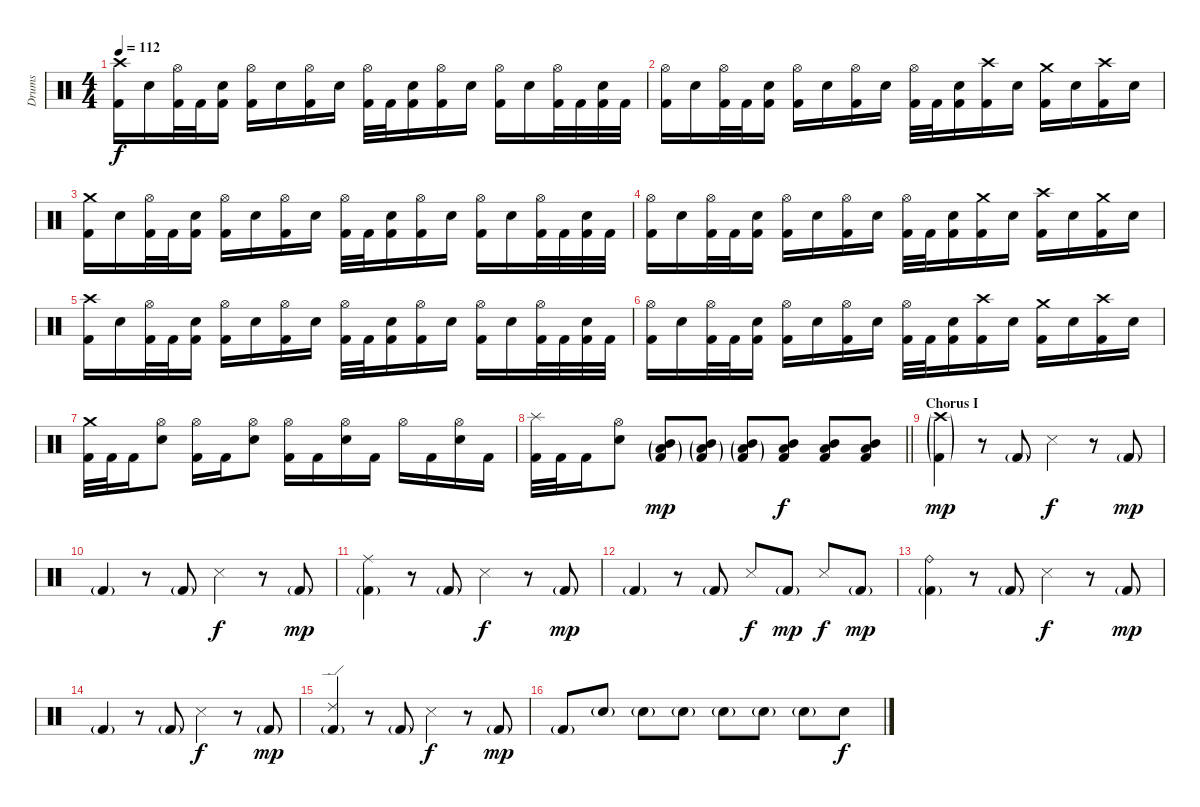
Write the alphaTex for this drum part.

\track ("Drums" "Drums") {instrument percussion}
\staff {score}
\articulation defaults
\ts (4 4)
\tempo 112
\clef neutral
\ks c
("Crash high (hit)" "Kick (hit) 2").16{dy f} "Electric Snare (hit)".16 ("Hi-Hat (open)" "Kick (hit) 2").32 "Kick (hit) 2".32 ("Electric Snare (hit)" "Kick (hit) 2").16 ("Hi-Hat (open)" "Kick (hit) 2").16 "Electric Snare (hit)".16 ("Hi-Hat (open)" "Kick (hit) 2").16 "Electric Snare (hit)".16 ("Hi-Hat (open)" "Kick (hit) 2").32 "Kick (hit) 2".32 ("Electric Snare (hit)" "Kick (hit) 2").16 ("Hi-Hat (open)" "Kick (hit) 2").16 "Electric Snare (hit)".16 ("Hi-Hat (open)" "Kick (hit) 2").16 "Electric Snare (hit)".16 ("Hi-Hat (open)" "Kick (hit) 2").32 "Kick (hit) 2".32 ("Electric Snare (hit)" "Kick (hit) 2").32 "Kick (hit) 2".32 |
("Hi-Hat (open)" "Kick (hit) 2").16 "Electric Snare (hit)".16 ("Hi-Hat (open)" "Kick (hit) 2").32 "Kick (hit) 2".32 ("Electric Snare (hit)" "Kick (hit) 2").16 ("Hi-Hat (open)" "Kick (hit) 2").16 "Electric Snare (hit)".16 ("Hi-Hat (open)" "Kick (hit) 2").16 "Electric Snare (hit)".16 ("Hi-Hat (open)" "Kick (hit) 2").32 "Kick (hit) 2".32 ("Electric Snare (hit)" "Kick (hit) 2").16 ("Crash high (hit)" "Kick (hit) 2").16 "Electric Snare (hit)".16 ("Crash medium (hit)" "Kick (hit) 2").16 "Electric Snare (hit)".16 ("Crash high (hit)" "Kick (hit) 2").16 "Electric Snare (hit)".16 |
("Crash medium (hit)" "Kick (hit) 2").16 "Electric Snare (hit)".16 ("Hi-Hat (open)" "Kick (hit) 2").32 "Kick (hit) 2".32 ("Electric Snare (hit)" "Kick (hit) 2").16 ("Hi-Hat (open)" "Kick (hit) 2").16 "Electric Snare (hit)".16 ("Hi-Hat (open)" "Kick (hit) 2").16 "Electric Snare (hit)".16 ("Hi-Hat (open)" "Kick (hit) 2").32 "Kick (hit) 2".32 ("Electric Snare (hit)" "Kick (hit) 2").16 ("Hi-Hat (open)" "Kick (hit) 2").16 "Electric Snare (hit)".16 ("Hi-Hat (open)" "Kick (hit) 2").16 "Electric Snare (hit)".16 ("Hi-Hat (open)" "Kick (hit) 2").32 "Kick (hit) 2".32 ("Electric Snare (hit)" "Kick (hit) 2").32 "Kick (hit) 2".32 |
("Hi-Hat (open)" "Kick (hit) 2").16 "Electric Snare (hit)".16 ("Hi-Hat (open)" "Kick (hit) 2").32 "Kick (hit) 2".32 ("Electric Snare (hit)" "Kick (hit) 2").16 ("Hi-Hat (open)" "Kick (hit) 2").16 "Electric Snare (hit)".16 ("Hi-Hat (open)" "Kick (hit) 2").16 "Electric Snare (hit)".16 ("Hi-Hat (open)" "Kick (hit) 2").32 "Kick (hit) 2".32 ("Electric Snare (hit)" "Kick (hit) 2").16 ("Crash medium (hit)" "Kick (hit) 2").16 "Electric Snare (hit)".16 ("Crash high (hit)" "Kick (hit) 2").16 "Electric Snare (hit)".16 ("Crash medium (hit)" "Kick (hit) 2").16 "Electric Snare (hit)".16 |
("Crash high (hit)" "Kick (hit) 2").16 "Electric Snare (hit)".16 ("Hi-Hat (open)" "Kick (hit) 2").32 "Kick (hit) 2".32 ("Electric Snare (hit)" "Kick (hit) 2").16 ("Hi-Hat (open)" "Kick (hit) 2").16 "Electric Snare (hit)".16 ("Hi-Hat (open)" "Kick (hit) 2").16 "Electric Snare (hit)".16 ("Hi-Hat (open)" "Kick (hit) 2").32 "Kick (hit) 2".32 ("Electric Snare (hit)" "Kick (hit) 2").16 ("Hi-Hat (open)" "Kick (hit) 2").16 "Electric Snare (hit)".16 ("Hi-Hat (open)" "Kick (hit) 2").16 "Electric Snare (hit)".16 ("Hi-Hat (open)" "Kick (hit) 2").32 "Kick (hit) 2".32 ("Electric Snare (hit)" "Kick (hit) 2").32 "Kick (hit) 2".32 |
("Hi-Hat (open)" "Kick (hit) 2").16 "Electric Snare (hit)".16 ("Hi-Hat (open)" "Kick (hit) 2").32 "Kick (hit) 2".32 ("Electric Snare (hit)" "Kick (hit) 2").16 ("Hi-Hat (open)" "Kick (hit) 2").16 "Electric Snare (hit)".16 ("Hi-Hat (open)" "Kick (hit) 2").16 "Electric Snare (hit)".16 ("Hi-Hat (open)" "Kick (hit) 2").32 "Kick (hit) 2".32 ("Electric Snare (hit)" "Kick (hit) 2").16 ("Crash high (hit)" "Kick (hit) 2").16 "Electric Snare (hit)".16 ("Crash medium (hit)" "Kick (hit) 2").16 "Electric Snare (hit)".16 ("Crash high (hit)" "Kick (hit) 2").16 "Electric Snare (hit)".16 |
("Crash medium (hit)" "Kick (hit) 2").32 "Kick (hit) 2".32 "Kick (hit) 2".16 ("Hi-Hat (open)" "Electric Snare (hit)").8 ("Hi-Hat (open)" "Kick (hit) 2").16 "Kick (hit) 2".16 ("Hi-Hat (open)" "Electric Snare (hit)").8 ("Hi-Hat (open)" "Kick (hit) 2").16 "Kick (hit) 2".16 ("Hi-Hat (open)" "Electric Snare (hit)").16 "Kick (hit) 2".16 "Hi-Hat (open)".16 "Kick (hit) 2".16 ("Hi-Hat (open)" "Electric Snare (hit)").16 "Kick (hit) 2".16 |
\barLineRight lightlight
("Splash (hit)" "Kick (hit) 2").32 "Kick (hit) 2".32 "Kick (hit) 2".16 ("Hi-Hat (open)" "Electric Snare (hit)").8 ("Mid Tom (hit)"{g} "Low Tom (hit)"{g} "Kick (hit) 2"{g}).8{dy mp} ("Mid Tom (hit)"{g} "Low Tom (hit)"{g} "Kick (hit) 2"{g}).8 ("Mid Tom (hit)"{g} "Low Tom (hit)"{g} "Kick (hit) 2"{g}).8 ("Mid Tom (hit)" "Low Tom (hit)" "Kick (hit) 2").8{dy f} ("Mid Tom (hit)" "Low Tom (hit)" "Kick (hit) 2").8 ("Mid Tom (hit)" "Low Tom (hit)" "Kick (hit) 2").8 |
\section ("" "Chorus I")
("Crash high (hit)"{g} "Kick (hit) 2"{g}).4{dy mp} r.8 "Kick (hit) 2"{g}.8 "Snare (side stick) 3".4{dy f} r.8 "Kick (hit) 2"{g}.8{dy mp} |
"Kick (hit) 2"{g}.4 r.8 "Kick (hit) 2"{g}.8 "Snare (side stick) 3".4{dy f} r.8 "Kick (hit) 2"{g}.8{dy mp} |
("Ride (middle)" "Kick (hit) 2"{g}).4 r.8 "Kick (hit) 2"{g}.8 "Snare (side stick) 3".4{dy f} r.8 "Kick (hit) 2"{g}.8{dy mp} |
"Kick (hit) 2"{g}.4 r.8 "Kick (hit) 2"{g}.8 "Snare (side stick) 3".8{dy f} "Kick (hit) 2"{g}.8{dy mp} "Snare (side stick) 3".8{dy f} "Kick (hit) 2"{g}.8{dy mp} |
("Ride (bell)" "Kick (hit) 2"{g}).4 r.8 "Kick (hit) 2"{g}.8 "Snare (side stick) 3".4{dy f} r.8 "Kick (hit) 2"{g}.8{dy mp} |
"Kick (hit) 2"{g}.4 r.8 "Kick (hit) 2"{g}.8 "Snare (side stick) 3".4{dy f} r.8 "Kick (hit) 2"{g}.8{dy mp} |
("Ride (edge) 2" "Kick (hit) 2"{g}).4 r.8 "Kick (hit) 2"{g}.8 "Snare (side stick) 3".4{dy f} r.8 "Kick (hit) 2"{g}.8{dy mp} |
"Kick (hit) 2"{g}.8 "Electric Snare (hit)"{g}.8 "Electric Snare (hit)"{g}.8 "Electric Snare (hit)"{g}.8 "Electric Snare (hit)"{g}.8 "Electric Snare (hit)"{g}.8 "Electric Snare (hit)"{g}.8 "Electric Snare (hit)".8{dy f}
